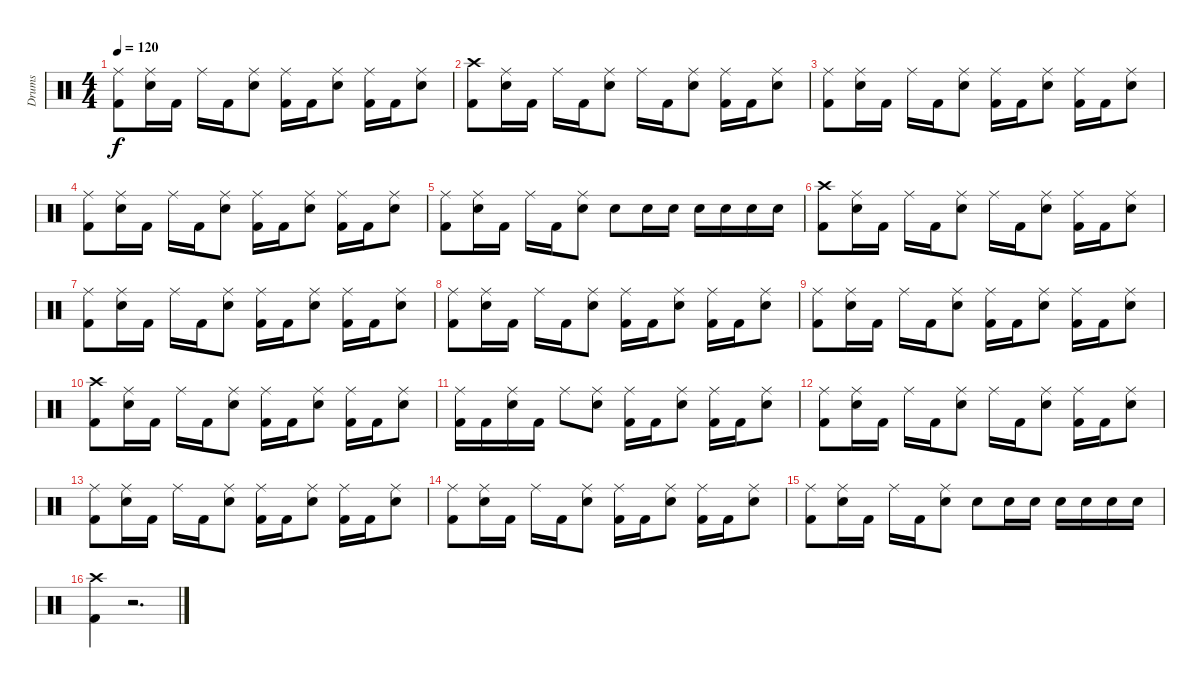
\track ("Drums" "Drums") {instrument percussion}
\staff {score}
\articulation defaults
\ts (4 4)
\tempo 120
\clef neutral
\ks c
("Ride (middle)" "Kick (hit) 2").8{dy f} ("Ride (middle)" "Electric Snare (hit)").16 "Kick (hit) 2".16 "Ride (middle)".16 "Kick (hit) 2".16 ("Ride (middle)" "Electric Snare (hit)").8 ("Ride (middle)" "Kick (hit) 2").16 "Kick (hit) 2".16 ("Ride (middle)" "Electric Snare (hit)").8 ("Ride (middle)" "Kick (hit) 2").16 "Kick (hit) 2".16 ("Ride (middle)" "Electric Snare (hit)").8 |
("Crash high (hit)" "Kick (hit) 2").8 ("Ride (middle)" "Electric Snare (hit)").16 "Kick (hit) 2".16 "Ride (middle)".16 "Kick (hit) 2".16 ("Ride (middle)" "Electric Snare (hit)").8 "Ride (middle)".16 "Kick (hit) 2".16 ("Ride (middle)" "Electric Snare (hit)").8 ("Ride (middle)" "Kick (hit) 2").16 "Kick (hit) 2".16 ("Ride (middle)" "Electric Snare (hit)").8 |
("Ride (middle)" "Kick (hit) 2").8 ("Ride (middle)" "Electric Snare (hit)").16 "Kick (hit) 2".16 "Ride (middle)".16 "Kick (hit) 2".16 ("Ride (middle)" "Electric Snare (hit)").8 ("Ride (middle)" "Kick (hit) 2").16 "Kick (hit) 2".16 ("Ride (middle)" "Electric Snare (hit)").8 ("Ride (middle)" "Kick (hit) 2").16 "Kick (hit) 2".16 ("Ride (middle)" "Electric Snare (hit)").8 |
("Ride (middle)" "Kick (hit) 2").8 ("Ride (middle)" "Electric Snare (hit)").16 "Kick (hit) 2".16 "Ride (middle)".16 "Kick (hit) 2".16 ("Ride (middle)" "Electric Snare (hit)").8 ("Ride (middle)" "Kick (hit) 2").16 "Kick (hit) 2".16 ("Ride (middle)" "Electric Snare (hit)").8 ("Ride (middle)" "Kick (hit) 2").16 "Kick (hit) 2".16 ("Ride (middle)" "Electric Snare (hit)").8 |
("Ride (middle)" "Kick (hit) 2").8 ("Ride (middle)" "Electric Snare (hit)").16 "Kick (hit) 2".16 "Ride (middle)".16 "Kick (hit) 2".16 ("Ride (middle)" "Electric Snare (hit)").8 "Electric Snare (hit)".8 "Electric Snare (hit)".16 "Electric Snare (hit)".16 "Electric Snare (hit)".16 "Electric Snare (hit)".16 "Electric Snare (hit)".16 "Electric Snare (hit)".16 |
("Crash high (hit)" "Kick (hit) 2").8 ("Ride (middle)" "Electric Snare (hit)").16 "Kick (hit) 2".16 "Ride (middle)".16 "Kick (hit) 2".16 ("Ride (middle)" "Electric Snare (hit)").8 "Ride (middle)".16 "Kick (hit) 2".16 ("Ride (middle)" "Electric Snare (hit)").8 ("Ride (middle)" "Kick (hit) 2").16 "Kick (hit) 2".16 ("Ride (middle)" "Electric Snare (hit)").8 |
("Ride (middle)" "Kick (hit) 2").8 ("Ride (middle)" "Electric Snare (hit)").16 "Kick (hit) 2".16 "Ride (middle)".16 "Kick (hit) 2".16 ("Ride (middle)" "Electric Snare (hit)").8 ("Ride (middle)" "Kick (hit) 2").16 "Kick (hit) 2".16 ("Ride (middle)" "Electric Snare (hit)").8 ("Ride (middle)" "Kick (hit) 2").16 "Kick (hit) 2".16 ("Ride (middle)" "Electric Snare (hit)").8 |
("Ride (middle)" "Kick (hit) 2").8 ("Ride (middle)" "Electric Snare (hit)").16 "Kick (hit) 2".16 "Ride (middle)".16 "Kick (hit) 2".16 ("Ride (middle)" "Electric Snare (hit)").8 ("Ride (middle)" "Kick (hit) 2").16 "Kick (hit) 2".16 ("Ride (middle)" "Electric Snare (hit)").8 ("Ride (middle)" "Kick (hit) 2").16 "Kick (hit) 2".16 ("Ride (middle)" "Electric Snare (hit)").8 |
("Ride (middle)" "Kick (hit) 2").8 ("Ride (middle)" "Electric Snare (hit)").16 "Kick (hit) 2".16 "Ride (middle)".16 "Kick (hit) 2".16 ("Ride (middle)" "Electric Snare (hit)").8 ("Ride (middle)" "Kick (hit) 2").16 "Kick (hit) 2".16 ("Ride (middle)" "Electric Snare (hit)").8 ("Ride (middle)" "Kick (hit) 2").16 "Kick (hit) 2".16 ("Ride (middle)" "Electric Snare (hit)").8 |
("Crash high (hit)" "Kick (hit) 2").8 ("Ride (middle)" "Electric Snare (hit)").16 "Kick (hit) 2".16 "Ride (middle)".16 "Kick (hit) 2".16 ("Ride (middle)" "Electric Snare (hit)").8 ("Ride (middle)" "Kick (hit) 2").16 "Kick (hit) 2".16 ("Ride (middle)" "Electric Snare (hit)").8 ("Ride (middle)" "Kick (hit) 2").16 "Kick (hit) 2".16 ("Ride (middle)" "Electric Snare (hit)").8 |
("Ride (middle)" "Kick (hit) 2").16 "Kick (hit) 2".16 ("Ride (middle)" "Electric Snare (hit)").16 "Kick (hit) 2".16 "Ride (middle)".8 ("Ride (middle)" "Electric Snare (hit)").8 ("Ride (middle)" "Kick (hit) 2").16 "Kick (hit) 2".16 ("Ride (middle)" "Electric Snare (hit)").8 ("Ride (middle)" "Kick (hit) 2").16 "Kick (hit) 2".16 ("Ride (middle)" "Electric Snare (hit)").8 |
("Ride (middle)" "Kick (hit) 2").8 ("Ride (middle)" "Electric Snare (hit)").16 "Kick (hit) 2".16 "Ride (middle)".16 "Kick (hit) 2".16 ("Ride (middle)" "Electric Snare (hit)").8 "Ride (middle)".16 "Kick (hit) 2".16 ("Ride (middle)" "Electric Snare (hit)").8 ("Ride (middle)" "Kick (hit) 2").16 "Kick (hit) 2".16 ("Ride (middle)" "Electric Snare (hit)").8 |
("Ride (middle)" "Kick (hit) 2").8 ("Ride (middle)" "Electric Snare (hit)").16 "Kick (hit) 2".16 "Ride (middle)".16 "Kick (hit) 2".16 ("Ride (middle)" "Electric Snare (hit)").8 ("Ride (middle)" "Kick (hit) 2").16 "Kick (hit) 2".16 ("Ride (middle)" "Electric Snare (hit)").8 ("Ride (middle)" "Kick (hit) 2").16 "Kick (hit) 2".16 ("Ride (middle)" "Electric Snare (hit)").8 |
("Ride (middle)" "Kick (hit) 2").8 ("Ride (middle)" "Electric Snare (hit)").16 "Kick (hit) 2".16 "Ride (middle)".16 "Kick (hit) 2".16 ("Ride (middle)" "Electric Snare (hit)").8 ("Ride (middle)" "Kick (hit) 2").16 "Kick (hit) 2".16 ("Ride (middle)" "Electric Snare (hit)").8 ("Ride (middle)" "Kick (hit) 2").16 "Kick (hit) 2".16 ("Ride (middle)" "Electric Snare (hit)").8 |
("Ride (middle)" "Kick (hit) 2").8 ("Ride (middle)" "Electric Snare (hit)").16 "Kick (hit) 2".16 "Ride (middle)".16 "Kick (hit) 2".16 ("Ride (middle)" "Electric Snare (hit)").8 "Electric Snare (hit)".8 "Electric Snare (hit)".16 "Electric Snare (hit)".16 "Electric Snare (hit)".16 "Electric Snare (hit)".16 "Electric Snare (hit)".16 "Electric Snare (hit)".16 |
("Crash high (hit)" "Kick (hit) 2").4 r.2{d}
